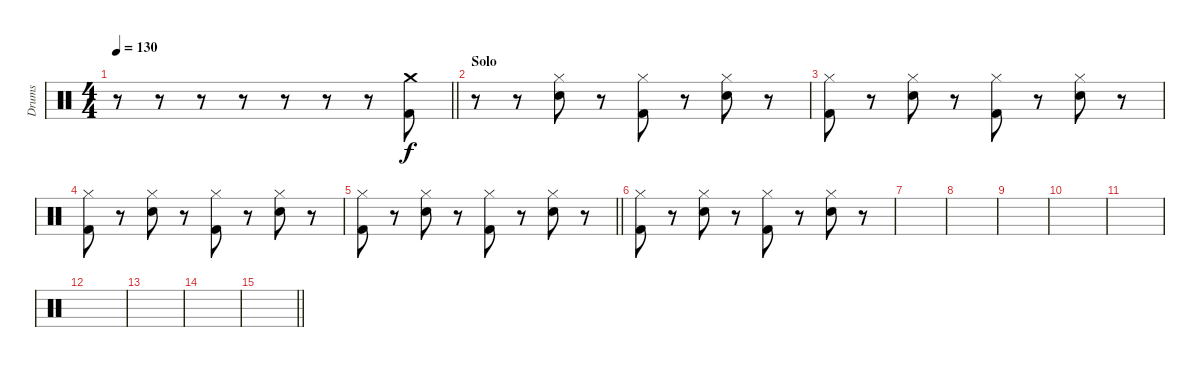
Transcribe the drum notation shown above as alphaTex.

\track ("Drums" "Drums") {instrument percussion}
\staff {score}
\articulation defaults
\ts (4 4)
\tempo 130
\clef neutral
\barLineRight lightlight
\ks c
r.8{dy f} r.8 r.8 r.8 r.8 r.8 r.8 ("Crash medium (hit)" "Kick (hit) 2").8 |
\section ("" "Solo")
r.8 r.8 ("Hi-Hat (closed)" "Snare (hit) 2").8 r.8 ("Hi-Hat (closed)" "Kick (hit) 2").8 r.8 ("Hi-Hat (closed)" "Snare (hit) 2").8 r.8 |
("Hi-Hat (closed)" "Kick (hit) 2").8 r.8 ("Hi-Hat (closed)" "Snare (hit) 2").8 r.8 ("Hi-Hat (closed)" "Kick (hit) 2").8 r.8 ("Hi-Hat (closed)" "Snare (hit) 2").8 r.8 |
("Hi-Hat (closed)" "Kick (hit) 2").8 r.8 ("Hi-Hat (closed)" "Snare (hit) 2").8 r.8 ("Hi-Hat (closed)" "Kick (hit) 2").8 r.8 ("Hi-Hat (closed)" "Snare (hit) 2").8 r.8 |
\barLineRight lightlight
("Hi-Hat (closed)" "Kick (hit) 2").8 r.8 ("Hi-Hat (closed)" "Snare (hit) 2").8 r.8 ("Hi-Hat (closed)" "Kick (hit) 2").8 r.8 ("Hi-Hat (closed)" "Snare (hit) 2").8 r.8 |
("Hi-Hat (closed)" "Kick (hit) 2").8 r.8 ("Hi-Hat (closed)" "Snare (hit) 2").8 r.8 ("Hi-Hat (closed)" "Kick (hit) 2").8 r.8 ("Hi-Hat (closed)" "Snare (hit) 2").8 r.8 |
|
|
|
|
|
|
|
|
\barLineRight lightlight
